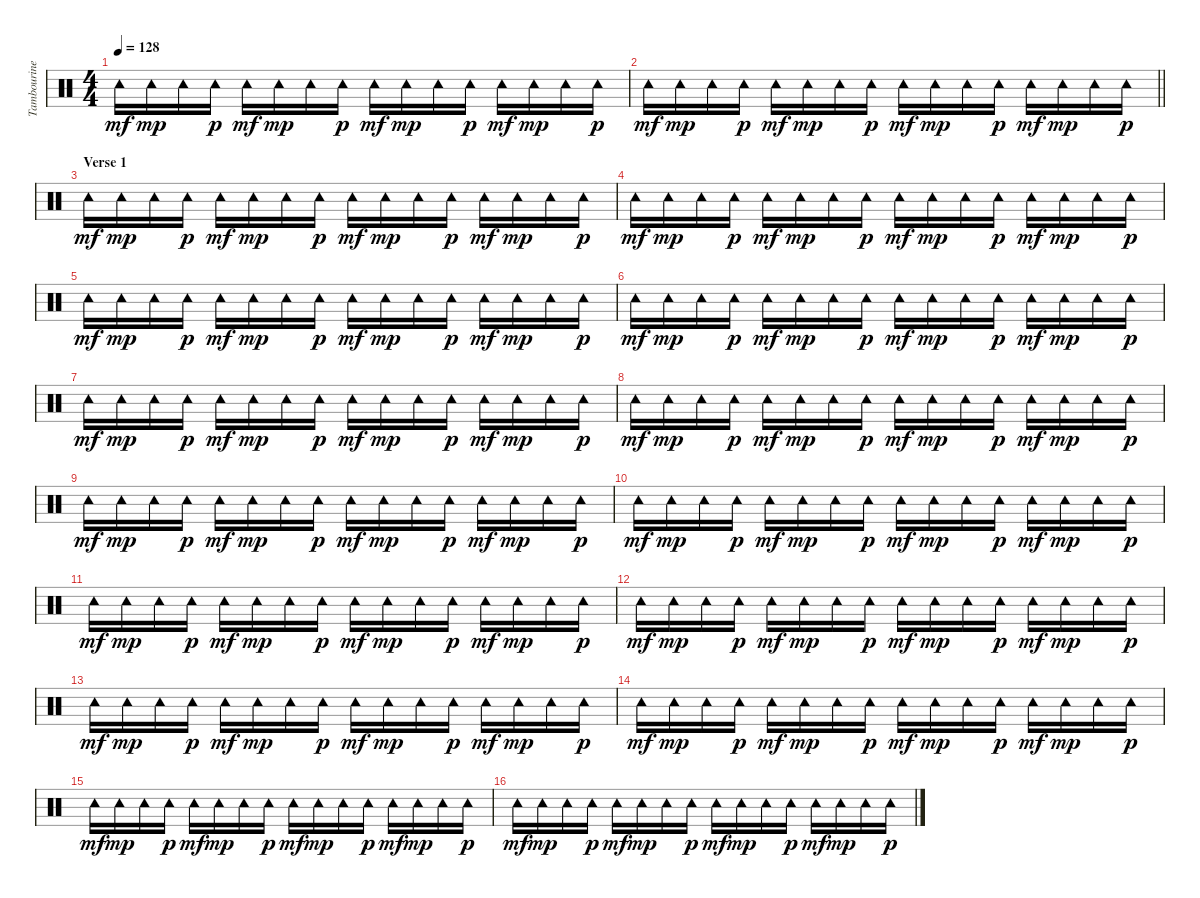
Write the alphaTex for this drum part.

\track ("Tambourine" "Tambourine") {instrument percussion}
\staff {score}
\articulation defaults
\ts (4 4)
\tempo 128
\clef neutral
\ks c "Tambourine (hit)".16{dy mf} "Tambourine (hit)".16{dy mp} "Tambourine (hit)".16 "Tambourine (hit)".16{dy p} "Tambourine (hit)".16{dy mf} "Tambourine (hit)".16{dy mp} "Tambourine (hit)".16 "Tambourine (hit)".16{dy p} "Tambourine (hit)".16{dy mf} "Tambourine (hit)".16{dy mp} "Tambourine (hit)".16 "Tambourine (hit)".16{dy p} "Tambourine (hit)".16{dy mf} "Tambourine (hit)".16{dy mp} "Tambourine (hit)".16 "Tambourine (hit)".16{dy p}
|
\barLineRight lightlight "Tambourine (hit)".16{dy mf} "Tambourine (hit)".16{dy mp} "Tambourine (hit)".16 "Tambourine (hit)".16{dy p} "Tambourine (hit)".16{dy mf} "Tambourine (hit)".16{dy mp} "Tambourine (hit)".16 "Tambourine (hit)".16{dy p} "Tambourine (hit)".16{dy mf} "Tambourine (hit)".16{dy mp} "Tambourine (hit)".16 "Tambourine (hit)".16{dy p} "Tambourine (hit)".16{dy mf} "Tambourine (hit)".16{dy mp} "Tambourine (hit)".16 "Tambourine (hit)".16{dy p}
|
\section ("" "Verse 1")
"Tambourine (hit)".16{dy mf} "Tambourine (hit)".16{dy mp} "Tambourine (hit)".16 "Tambourine (hit)".16{dy p} "Tambourine (hit)".16{dy mf} "Tambourine (hit)".16{dy mp} "Tambourine (hit)".16 "Tambourine (hit)".16{dy p} "Tambourine (hit)".16{dy mf} "Tambourine (hit)".16{dy mp} "Tambourine (hit)".16 "Tambourine (hit)".16{dy p} "Tambourine (hit)".16{dy mf} "Tambourine (hit)".16{dy mp} "Tambourine (hit)".16 "Tambourine (hit)".16{dy p} |
"Tambourine (hit)".16{dy mf} "Tambourine (hit)".16{dy mp} "Tambourine (hit)".16 "Tambourine (hit)".16{dy p} "Tambourine (hit)".16{dy mf} "Tambourine (hit)".16{dy mp} "Tambourine (hit)".16 "Tambourine (hit)".16{dy p} "Tambourine (hit)".16{dy mf} "Tambourine (hit)".16{dy mp} "Tambourine (hit)".16 "Tambourine (hit)".16{dy p} "Tambourine (hit)".16{dy mf} "Tambourine (hit)".16{dy mp} "Tambourine (hit)".16 "Tambourine (hit)".16{dy p} |
"Tambourine (hit)".16{dy mf} "Tambourine (hit)".16{dy mp} "Tambourine (hit)".16 "Tambourine (hit)".16{dy p} "Tambourine (hit)".16{dy mf} "Tambourine (hit)".16{dy mp} "Tambourine (hit)".16 "Tambourine (hit)".16{dy p} "Tambourine (hit)".16{dy mf} "Tambourine (hit)".16{dy mp} "Tambourine (hit)".16 "Tambourine (hit)".16{dy p} "Tambourine (hit)".16{dy mf} "Tambourine (hit)".16{dy mp} "Tambourine (hit)".16 "Tambourine (hit)".16{dy p} |
"Tambourine (hit)".16{dy mf} "Tambourine (hit)".16{dy mp} "Tambourine (hit)".16 "Tambourine (hit)".16{dy p} "Tambourine (hit)".16{dy mf} "Tambourine (hit)".16{dy mp} "Tambourine (hit)".16 "Tambourine (hit)".16{dy p} "Tambourine (hit)".16{dy mf} "Tambourine (hit)".16{dy mp} "Tambourine (hit)".16 "Tambourine (hit)".16{dy p} "Tambourine (hit)".16{dy mf} "Tambourine (hit)".16{dy mp} "Tambourine (hit)".16 "Tambourine (hit)".16{dy p} |
"Tambourine (hit)".16{dy mf} "Tambourine (hit)".16{dy mp} "Tambourine (hit)".16 "Tambourine (hit)".16{dy p} "Tambourine (hit)".16{dy mf} "Tambourine (hit)".16{dy mp} "Tambourine (hit)".16 "Tambourine (hit)".16{dy p} "Tambourine (hit)".16{dy mf} "Tambourine (hit)".16{dy mp} "Tambourine (hit)".16 "Tambourine (hit)".16{dy p} "Tambourine (hit)".16{dy mf} "Tambourine (hit)".16{dy mp} "Tambourine (hit)".16 "Tambourine (hit)".16{dy p} |
"Tambourine (hit)".16{dy mf} "Tambourine (hit)".16{dy mp} "Tambourine (hit)".16 "Tambourine (hit)".16{dy p} "Tambourine (hit)".16{dy mf} "Tambourine (hit)".16{dy mp} "Tambourine (hit)".16 "Tambourine (hit)".16{dy p} "Tambourine (hit)".16{dy mf} "Tambourine (hit)".16{dy mp} "Tambourine (hit)".16 "Tambourine (hit)".16{dy p} "Tambourine (hit)".16{dy mf} "Tambourine (hit)".16{dy mp} "Tambourine (hit)".16 "Tambourine (hit)".16{dy p} |
"Tambourine (hit)".16{dy mf} "Tambourine (hit)".16{dy mp} "Tambourine (hit)".16 "Tambourine (hit)".16{dy p} "Tambourine (hit)".16{dy mf} "Tambourine (hit)".16{dy mp} "Tambourine (hit)".16 "Tambourine (hit)".16{dy p} "Tambourine (hit)".16{dy mf} "Tambourine (hit)".16{dy mp} "Tambourine (hit)".16 "Tambourine (hit)".16{dy p} "Tambourine (hit)".16{dy mf} "Tambourine (hit)".16{dy mp} "Tambourine (hit)".16 "Tambourine (hit)".16{dy p} |
"Tambourine (hit)".16{dy mf} "Tambourine (hit)".16{dy mp} "Tambourine (hit)".16 "Tambourine (hit)".16{dy p} "Tambourine (hit)".16{dy mf} "Tambourine (hit)".16{dy mp} "Tambourine (hit)".16 "Tambourine (hit)".16{dy p} "Tambourine (hit)".16{dy mf} "Tambourine (hit)".16{dy mp} "Tambourine (hit)".16 "Tambourine (hit)".16{dy p} "Tambourine (hit)".16{dy mf} "Tambourine (hit)".16{dy mp} "Tambourine (hit)".16 "Tambourine (hit)".16{dy p} |
"Tambourine (hit)".16{dy mf} "Tambourine (hit)".16{dy mp} "Tambourine (hit)".16 "Tambourine (hit)".16{dy p} "Tambourine (hit)".16{dy mf} "Tambourine (hit)".16{dy mp} "Tambourine (hit)".16 "Tambourine (hit)".16{dy p} "Tambourine (hit)".16{dy mf} "Tambourine (hit)".16{dy mp} "Tambourine (hit)".16 "Tambourine (hit)".16{dy p} "Tambourine (hit)".16{dy mf} "Tambourine (hit)".16{dy mp} "Tambourine (hit)".16 "Tambourine (hit)".16{dy p} |
"Tambourine (hit)".16{dy mf} "Tambourine (hit)".16{dy mp} "Tambourine (hit)".16 "Tambourine (hit)".16{dy p} "Tambourine (hit)".16{dy mf} "Tambourine (hit)".16{dy mp} "Tambourine (hit)".16 "Tambourine (hit)".16{dy p} "Tambourine (hit)".16{dy mf} "Tambourine (hit)".16{dy mp} "Tambourine (hit)".16 "Tambourine (hit)".16{dy p} "Tambourine (hit)".16{dy mf} "Tambourine (hit)".16{dy mp} "Tambourine (hit)".16 "Tambourine (hit)".16{dy p} |
"Tambourine (hit)".16{dy mf} "Tambourine (hit)".16{dy mp} "Tambourine (hit)".16 "Tambourine (hit)".16{dy p} "Tambourine (hit)".16{dy mf} "Tambourine (hit)".16{dy mp} "Tambourine (hit)".16 "Tambourine (hit)".16{dy p} "Tambourine (hit)".16{dy mf} "Tambourine (hit)".16{dy mp} "Tambourine (hit)".16 "Tambourine (hit)".16{dy p} "Tambourine (hit)".16{dy mf} "Tambourine (hit)".16{dy mp} "Tambourine (hit)".16 "Tambourine (hit)".16{dy p} |
"Tambourine (hit)".16{dy mf} "Tambourine (hit)".16{dy mp} "Tambourine (hit)".16 "Tambourine (hit)".16{dy p} "Tambourine (hit)".16{dy mf} "Tambourine (hit)".16{dy mp} "Tambourine (hit)".16 "Tambourine (hit)".16{dy p} "Tambourine (hit)".16{dy mf} "Tambourine (hit)".16{dy mp} "Tambourine (hit)".16 "Tambourine (hit)".16{dy p} "Tambourine (hit)".16{dy mf} "Tambourine (hit)".16{dy mp} "Tambourine (hit)".16 "Tambourine (hit)".16{dy p} |
"Tambourine (hit)".16{dy mf} "Tambourine (hit)".16{dy mp} "Tambourine (hit)".16 "Tambourine (hit)".16{dy p} "Tambourine (hit)".16{dy mf} "Tambourine (hit)".16{dy mp} "Tambourine (hit)".16 "Tambourine (hit)".16{dy p} "Tambourine (hit)".16{dy mf} "Tambourine (hit)".16{dy mp} "Tambourine (hit)".16 "Tambourine (hit)".16{dy p} "Tambourine (hit)".16{dy mf} "Tambourine (hit)".16{dy mp} "Tambourine (hit)".16 "Tambourine (hit)".16{dy p} |
"Tambourine (hit)".16{dy mf} "Tambourine (hit)".16{dy mp} "Tambourine (hit)".16 "Tambourine (hit)".16{dy p} "Tambourine (hit)".16{dy mf} "Tambourine (hit)".16{dy mp} "Tambourine (hit)".16 "Tambourine (hit)".16{dy p} "Tambourine (hit)".16{dy mf} "Tambourine (hit)".16{dy mp} "Tambourine (hit)".16 "Tambourine (hit)".16{dy p} "Tambourine (hit)".16{dy mf} "Tambourine (hit)".16{dy mp} "Tambourine (hit)".16 "Tambourine (hit)".16{dy p}
